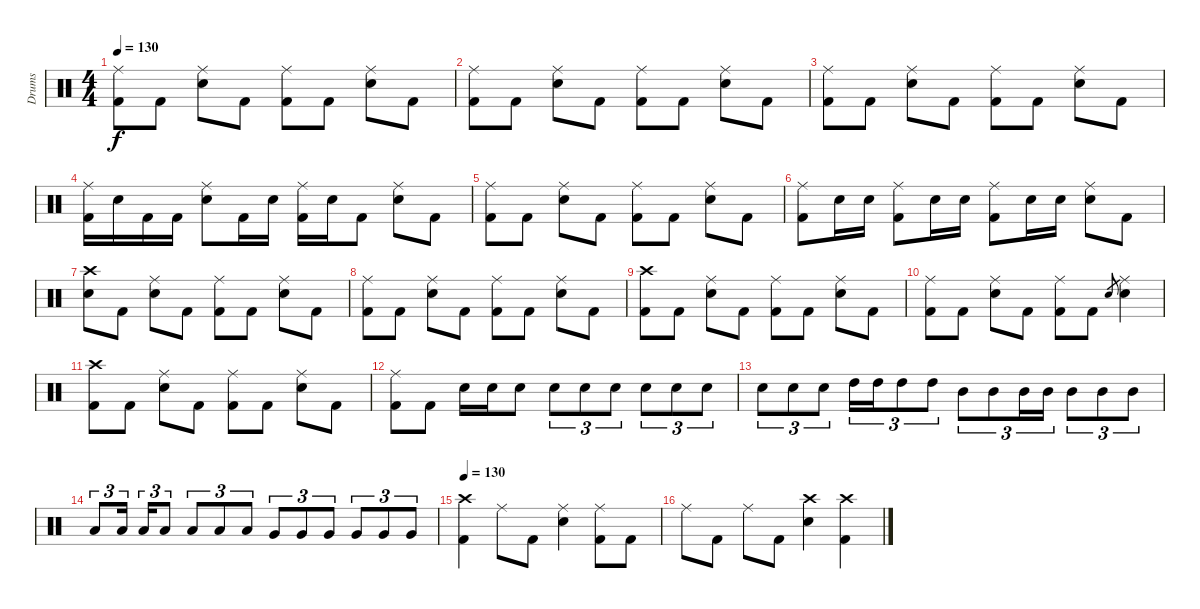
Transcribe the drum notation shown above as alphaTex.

\track ("Drums" "Drums") {instrument percussion}
\staff {score}
\articulation defaults
\ts (4 4)
\tempo 130
\clef neutral
\ks c
("Ride (middle)" "Kick (hit) 2").8{dy f} "Kick (hit) 2".8 ("Ride (middle)" "Electric Snare (hit)").8 "Kick (hit) 2".8 ("Ride (middle)" "Kick (hit) 2").8 "Kick (hit) 2".8 ("Ride (middle)" "Electric Snare (hit)").8 "Kick (hit) 2".8 |
("Ride (middle)" "Kick (hit) 2").8 "Kick (hit) 2".8 ("Ride (middle)" "Electric Snare (hit)").8 "Kick (hit) 2".8 ("Ride (middle)" "Kick (hit) 2").8 "Kick (hit) 2".8 ("Ride (middle)" "Electric Snare (hit)").8 "Kick (hit) 2".8 |
("Ride (middle)" "Kick (hit) 2").8 "Kick (hit) 2".8 ("Ride (middle)" "Electric Snare (hit)").8 "Kick (hit) 2".8 ("Ride (middle)" "Kick (hit) 2").8 "Kick (hit) 2".8 ("Ride (middle)" "Electric Snare (hit)").8 "Kick (hit) 2".8 |
("Ride (middle)" "Kick (hit) 2").16 "Electric Snare (hit)".16 "Kick (hit) 2".16 "Kick (hit) 2".16 ("Ride (middle)" "Electric Snare (hit)").8 "Kick (hit) 2".16 "Electric Snare (hit)".16 ("Ride (middle)" "Kick (hit) 2").16 "Electric Snare (hit)".16 "Kick (hit) 2".8 ("Ride (middle)" "Electric Snare (hit)").8 "Kick (hit) 2".8 |
("Ride (middle)" "Kick (hit) 2").8 "Kick (hit) 2".8 ("Ride (middle)" "Electric Snare (hit)").8 "Kick (hit) 2".8 ("Ride (middle)" "Kick (hit) 2").8 "Kick (hit) 2".8 ("Ride (middle)" "Electric Snare (hit)").8 "Kick (hit) 2".8 |
("Ride (middle)" "Kick (hit) 2").8 "Electric Snare (hit)".16 "Electric Snare (hit)".16 ("Ride (middle)" "Kick (hit) 2").8 "Electric Snare (hit)".16 "Electric Snare (hit)".16 ("Ride (middle)" "Kick (hit) 2").8 "Electric Snare (hit)".16 "Electric Snare (hit)".16 ("Ride (middle)" "Electric Snare (hit)").8 "Kick (hit) 2".8 |
("Crash high (hit)" "Electric Snare (hit)").8 "Kick (hit) 2".8 ("Ride (middle)" "Electric Snare (hit)").8 "Kick (hit) 2".8 ("Ride (middle)" "Kick (hit) 2").8 "Kick (hit) 2".8 ("Ride (middle)" "Electric Snare (hit)").8 "Kick (hit) 2".8 |
("Ride (middle)" "Kick (hit) 2").8 "Kick (hit) 2".8 ("Ride (middle)" "Electric Snare (hit)").8 "Kick (hit) 2".8 ("Ride (middle)" "Kick (hit) 2").8 "Kick (hit) 2".8 ("Ride (middle)" "Electric Snare (hit)").8 "Kick (hit) 2".8 |
("Crash high (hit)" "Kick (hit) 2").8 "Kick (hit) 2".8 ("Ride (middle)" "Electric Snare (hit)").8 "Kick (hit) 2".8 ("Ride (middle)" "Kick (hit) 2").8 "Kick (hit) 2".8 ("Ride (middle)" "Electric Snare (hit)").8 "Kick (hit) 2".8 |
("Ride (middle)" "Kick (hit) 2").8 "Kick (hit) 2".8 ("Ride (middle)" "Electric Snare (hit)").8 "Kick (hit) 2".8 ("Ride (middle)" "Kick (hit) 2").8 "Kick (hit) 2".8 "Electric Snare (hit)".8{gr} ("Ride (middle)" "Electric Snare (hit)").4 |
("Crash high (hit)" "Kick (hit) 2").8 "Kick (hit) 2".8 ("Ride (middle)" "Electric Snare (hit)").8 "Kick (hit) 2".8 ("Ride (middle)" "Kick (hit) 2").8 "Kick (hit) 2".8 ("Ride (middle)" "Electric Snare (hit)").8 "Kick (hit) 2".8 |
("Ride (middle)" "Kick (hit) 2").8 "Kick (hit) 2".8 "Electric Snare (hit)".16 "Electric Snare (hit)".16 "Electric Snare (hit)".8 "Electric Snare (hit)".8{tu (3 2)} "Electric Snare (hit)".8{tu (3 2)} "Electric Snare (hit)".8{tu (3 2)} "Electric Snare (hit)".8{tu (3 2)} "Electric Snare (hit)".8{tu (3 2)} "Electric Snare (hit)".8{tu (3 2)} |
"Electric Snare (hit)".8{tu (3 2)} "Electric Snare (hit)".8{tu (3 2)} "Electric Snare (hit)".8{tu (3 2)} "High Tom (hit)".16{tu (3 2)} "High Tom (hit)".16{tu (3 2)} "High Tom (hit)".8{tu (3 2)} "High Tom (hit)".8{tu (3 2)} "Mid Tom (hit)".8{tu (3 2)} "Mid Tom (hit)".8{tu (3 2)} "Mid Tom (hit)".16{tu (3 2)} "Mid Tom (hit)".16{tu (3 2)} "Mid Tom (hit)".8{tu (3 2)} "Mid Tom (hit)".8{tu (3 2)} "Mid Tom (hit)".8{tu (3 2)} |
"Low Tom (hit)".8{tu (3 2)} "Low Tom (hit)".16{tu (3 2)} "Low Tom (hit)".16{tu (3 2)} "Low Tom (hit)".8{tu (3 2)} "Low Tom (hit)".8{tu (3 2)} "Low Tom (hit)".8{tu (3 2)} "Low Tom (hit)".8{tu (3 2)} "Very Low Tom (hit)".8{tu (3 2)} "Very Low Tom (hit)".8{tu (3 2)} "Very Low Tom (hit)".8{tu (3 2)} "Very Low Tom (hit)".8{tu (3 2)} "Very Low Tom (hit)".8{tu (3 2)} "Very Low Tom (hit)".8{tu (3 2)} |
\tempo 130
("Crash high (hit)" "Kick (hit) 2").4 "Ride (middle)".8 "Kick (hit) 2".8 ("Ride (middle)" "Electric Snare (hit)").4 ("Ride (middle)" "Kick (hit) 2").8 "Kick (hit) 2".8 |
"Ride (middle)".8 "Kick (hit) 2".8 "Ride (middle)".8 "Kick (hit) 2".8 ("Crash high (hit)" "Electric Snare (hit)").4 ("Crash high (hit)" "Kick (hit) 2").4
